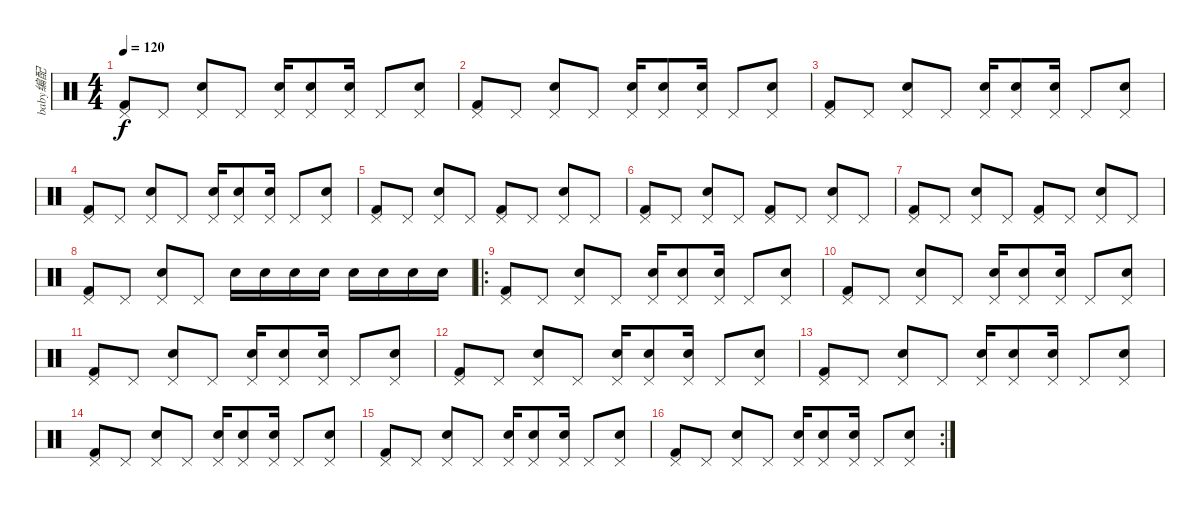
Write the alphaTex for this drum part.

\track ("baby编配" "baby编配") {instrument percussion}
\staff {score}
\articulation defaults
\ts (4 4)
\tempo 120
\clef neutral
\ks c
("Pedal Hi-Hat (hit)" "Kick (hit) 2").8{dy f} "Pedal Hi-Hat (hit)".8 ("Pedal Hi-Hat (hit)" "Snare (hit) 2").8 "Pedal Hi-Hat (hit)".8 ("Pedal Hi-Hat (hit)" "Snare (hit) 2").16 ("Pedal Hi-Hat (hit)" "Snare (hit) 2").8 ("Pedal Hi-Hat (hit)" "Snare (hit) 2").16 "Pedal Hi-Hat (hit)".8 ("Pedal Hi-Hat (hit)" "Snare (hit) 2").8 |
("Pedal Hi-Hat (hit)" "Kick (hit) 2").8 "Pedal Hi-Hat (hit)".8 ("Pedal Hi-Hat (hit)" "Snare (hit) 2").8 "Pedal Hi-Hat (hit)".8 ("Pedal Hi-Hat (hit)" "Snare (hit) 2").16 ("Pedal Hi-Hat (hit)" "Snare (hit) 2").8 ("Pedal Hi-Hat (hit)" "Snare (hit) 2").16 "Pedal Hi-Hat (hit)".8 ("Pedal Hi-Hat (hit)" "Snare (hit) 2").8 |
("Pedal Hi-Hat (hit)" "Kick (hit) 2").8 "Pedal Hi-Hat (hit)".8 ("Pedal Hi-Hat (hit)" "Snare (hit) 2").8 "Pedal Hi-Hat (hit)".8 ("Pedal Hi-Hat (hit)" "Snare (hit) 2").16 ("Pedal Hi-Hat (hit)" "Snare (hit) 2").8 ("Pedal Hi-Hat (hit)" "Snare (hit) 2").16 "Pedal Hi-Hat (hit)".8 ("Pedal Hi-Hat (hit)" "Snare (hit) 2").8 |
("Pedal Hi-Hat (hit)" "Kick (hit) 2").8 "Pedal Hi-Hat (hit)".8 ("Pedal Hi-Hat (hit)" "Snare (hit) 2").8 "Pedal Hi-Hat (hit)".8 ("Pedal Hi-Hat (hit)" "Snare (hit) 2").16 ("Pedal Hi-Hat (hit)" "Snare (hit) 2").8 ("Pedal Hi-Hat (hit)" "Snare (hit) 2").16 "Pedal Hi-Hat (hit)".8 ("Pedal Hi-Hat (hit)" "Snare (hit) 2").8 |
("Kick (hit) 2" "Pedal Hi-Hat (hit)").8 "Pedal Hi-Hat (hit)".8 ("Snare (hit) 2" "Pedal Hi-Hat (hit)").8 "Pedal Hi-Hat (hit)".8 ("Kick (hit) 2" "Pedal Hi-Hat (hit)").8 "Pedal Hi-Hat (hit)".8 ("Snare (hit) 2" "Pedal Hi-Hat (hit)").8 "Pedal Hi-Hat (hit)".8 |
("Kick (hit) 2" "Pedal Hi-Hat (hit)").8 "Pedal Hi-Hat (hit)".8 ("Snare (hit) 2" "Pedal Hi-Hat (hit)").8 "Pedal Hi-Hat (hit)".8 ("Kick (hit) 2" "Pedal Hi-Hat (hit)").8 "Pedal Hi-Hat (hit)".8 ("Snare (hit) 2" "Pedal Hi-Hat (hit)").8 "Pedal Hi-Hat (hit)".8 |
("Kick (hit) 2" "Pedal Hi-Hat (hit)").8 "Pedal Hi-Hat (hit)".8 ("Snare (hit) 2" "Pedal Hi-Hat (hit)").8 "Pedal Hi-Hat (hit)".8 ("Kick (hit) 2" "Pedal Hi-Hat (hit)").8 "Pedal Hi-Hat (hit)".8 ("Snare (hit) 2" "Pedal Hi-Hat (hit)").8 "Pedal Hi-Hat (hit)".8 |
("Kick (hit) 2" "Pedal Hi-Hat (hit)").8 "Pedal Hi-Hat (hit)".8 ("Snare (hit) 2" "Pedal Hi-Hat (hit)").8 "Pedal Hi-Hat (hit)".8 "Snare (hit) 2".16 "Snare (hit) 2".16 "Snare (hit) 2".16 "Snare (hit) 2".16 "Snare (hit) 2".16 "Snare (hit) 2".16 "Snare (hit) 2".16 "Snare (hit) 2".16 |
\ro
("Pedal Hi-Hat (hit)" "Kick (hit) 2").8 "Pedal Hi-Hat (hit)".8 ("Pedal Hi-Hat (hit)" "Snare (hit) 2").8 "Pedal Hi-Hat (hit)".8 ("Pedal Hi-Hat (hit)" "Snare (hit) 2").16 ("Pedal Hi-Hat (hit)" "Snare (hit) 2").8 ("Pedal Hi-Hat (hit)" "Snare (hit) 2").16 "Pedal Hi-Hat (hit)".8 ("Pedal Hi-Hat (hit)" "Snare (hit) 2").8 |
("Pedal Hi-Hat (hit)" "Kick (hit) 2").8 "Pedal Hi-Hat (hit)".8 ("Pedal Hi-Hat (hit)" "Snare (hit) 2").8 "Pedal Hi-Hat (hit)".8 ("Pedal Hi-Hat (hit)" "Snare (hit) 2").16 ("Pedal Hi-Hat (hit)" "Snare (hit) 2").8 ("Pedal Hi-Hat (hit)" "Snare (hit) 2").16 "Pedal Hi-Hat (hit)".8 ("Pedal Hi-Hat (hit)" "Snare (hit) 2").8 |
("Pedal Hi-Hat (hit)" "Kick (hit) 2").8 "Pedal Hi-Hat (hit)".8 ("Pedal Hi-Hat (hit)" "Snare (hit) 2").8 "Pedal Hi-Hat (hit)".8 ("Pedal Hi-Hat (hit)" "Snare (hit) 2").16 ("Pedal Hi-Hat (hit)" "Snare (hit) 2").8 ("Pedal Hi-Hat (hit)" "Snare (hit) 2").16 "Pedal Hi-Hat (hit)".8 ("Pedal Hi-Hat (hit)" "Snare (hit) 2").8 |
("Pedal Hi-Hat (hit)" "Kick (hit) 2").8 "Pedal Hi-Hat (hit)".8 ("Pedal Hi-Hat (hit)" "Snare (hit) 2").8 "Pedal Hi-Hat (hit)".8 ("Pedal Hi-Hat (hit)" "Snare (hit) 2").16 ("Pedal Hi-Hat (hit)" "Snare (hit) 2").8 ("Pedal Hi-Hat (hit)" "Snare (hit) 2").16 "Pedal Hi-Hat (hit)".8 ("Pedal Hi-Hat (hit)" "Snare (hit) 2").8 |
("Pedal Hi-Hat (hit)" "Kick (hit) 2").8 "Pedal Hi-Hat (hit)".8 ("Pedal Hi-Hat (hit)" "Snare (hit) 2").8 "Pedal Hi-Hat (hit)".8 ("Pedal Hi-Hat (hit)" "Snare (hit) 2").16 ("Pedal Hi-Hat (hit)" "Snare (hit) 2").8 ("Pedal Hi-Hat (hit)" "Snare (hit) 2").16 "Pedal Hi-Hat (hit)".8 ("Pedal Hi-Hat (hit)" "Snare (hit) 2").8 |
("Pedal Hi-Hat (hit)" "Kick (hit) 2").8 "Pedal Hi-Hat (hit)".8 ("Pedal Hi-Hat (hit)" "Snare (hit) 2").8 "Pedal Hi-Hat (hit)".8 ("Pedal Hi-Hat (hit)" "Snare (hit) 2").16 ("Pedal Hi-Hat (hit)" "Snare (hit) 2").8 ("Pedal Hi-Hat (hit)" "Snare (hit) 2").16 "Pedal Hi-Hat (hit)".8 ("Pedal Hi-Hat (hit)" "Snare (hit) 2").8 |
("Pedal Hi-Hat (hit)" "Kick (hit) 2").8 "Pedal Hi-Hat (hit)".8 ("Pedal Hi-Hat (hit)" "Snare (hit) 2").8 "Pedal Hi-Hat (hit)".8 ("Pedal Hi-Hat (hit)" "Snare (hit) 2").16 ("Pedal Hi-Hat (hit)" "Snare (hit) 2").8 ("Pedal Hi-Hat (hit)" "Snare (hit) 2").16 "Pedal Hi-Hat (hit)".8 ("Pedal Hi-Hat (hit)" "Snare (hit) 2").8 |
\rc 2
("Pedal Hi-Hat (hit)" "Kick (hit) 2").8 "Pedal Hi-Hat (hit)".8 ("Pedal Hi-Hat (hit)" "Snare (hit) 2").8 "Pedal Hi-Hat (hit)".8 ("Pedal Hi-Hat (hit)" "Snare (hit) 2").16 ("Pedal Hi-Hat (hit)" "Snare (hit) 2").8 ("Pedal Hi-Hat (hit)" "Snare (hit) 2").16 "Pedal Hi-Hat (hit)".8 ("Pedal Hi-Hat (hit)" "Snare (hit) 2").8
